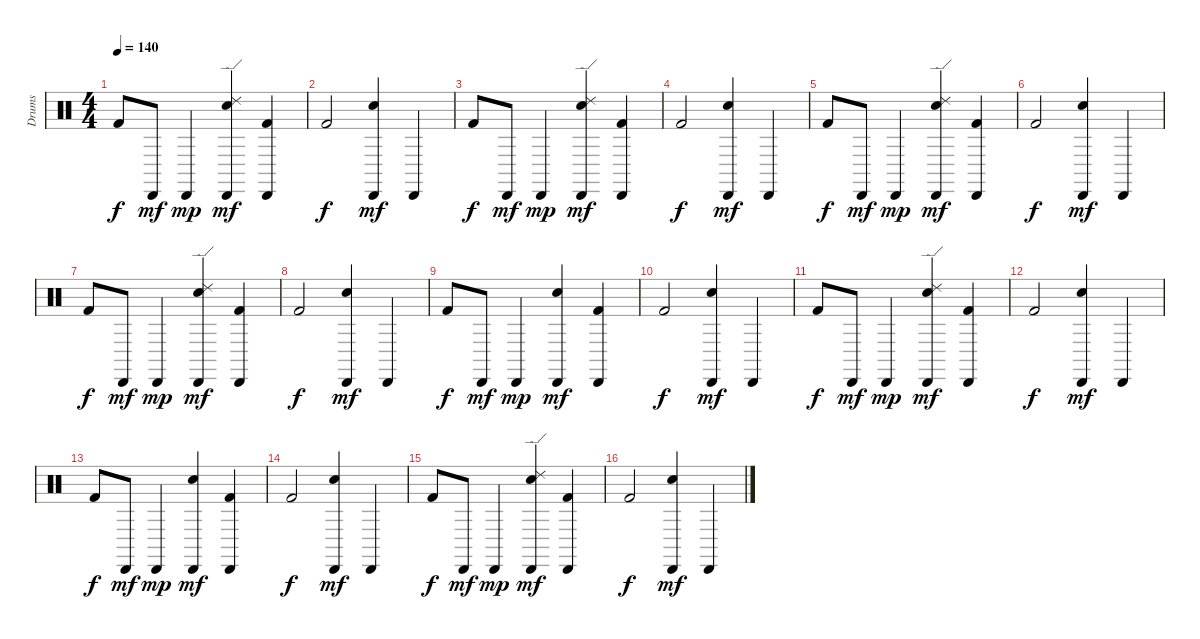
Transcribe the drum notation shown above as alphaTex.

\track ("Drums" "Drums") {instrument percussion}
\staff {score}
\articulation defaults
\ts (4 4)
\tempo 140
\clef neutral
\ks c "Kick (hit) 2".8{dy f} "Cabasa (hit)".8{dy mf} "Cabasa (hit)".4{dy mp}
("Snare (hit) 2" "Cabasa (hit)" "Ride (edge) 2").4{dy mf} ("Kick (hit) 2" "Cabasa (hit)").4 |
"Kick (hit) 2".2{dy f} ("Snare (hit) 2" "Cabasa (hit)").4{dy mf} "Cabasa (hit)".4 |
"Kick (hit) 2".8{dy f} "Cabasa (hit)".8{dy mf} "Cabasa (hit)".4{dy mp} ("Snare (hit) 2" "Cabasa (hit)" "Ride (edge) 2").4{dy mf} ("Kick (hit) 2" "Cabasa (hit)").4 |
"Kick (hit) 2".2{dy f} ("Snare (hit) 2" "Cabasa (hit)").4{dy mf} "Cabasa (hit)".4 |
"Kick (hit) 2".8{dy f} "Cabasa (hit)".8{dy mf} "Cabasa (hit)".4{dy mp} ("Snare (hit) 2" "Cabasa (hit)" "Ride (edge) 2").4{dy mf} ("Kick (hit) 2" "Cabasa (hit)").4 |
"Kick (hit) 2".2{dy f} ("Snare (hit) 2" "Cabasa (hit)").4{dy mf} "Cabasa (hit)".4 |
"Kick (hit) 2".8{dy f} "Cabasa (hit)".8{dy mf} "Cabasa (hit)".4{dy mp} ("Snare (hit) 2" "Cabasa (hit)" "Ride (edge) 2").4{dy mf} ("Kick (hit) 2" "Cabasa (hit)").4 |
"Kick (hit) 2".2{dy f} ("Snare (hit) 2" "Cabasa (hit)").4{dy mf} "Cabasa (hit)".4 |
"Kick (hit) 2".8{dy f} "Cabasa (hit)".8{dy mf} "Cabasa (hit)".4{dy mp} ("Snare (hit) 2" "Cabasa (hit)").4{dy mf} ("Kick (hit) 2" "Cabasa (hit)").4 |
"Kick (hit) 2".2{dy f} ("Snare (hit) 2" "Cabasa (hit)").4{dy mf} "Cabasa (hit)".4 |
"Kick (hit) 2".8{dy f} "Cabasa (hit)".8{dy mf} "Cabasa (hit)".4{dy mp} ("Snare (hit) 2" "Cabasa (hit)" "Ride (edge) 2").4{dy mf} ("Kick (hit) 2" "Cabasa (hit)").4 |
"Kick (hit) 2".2{dy f} ("Snare (hit) 2" "Cabasa (hit)").4{dy mf} "Cabasa (hit)".4 |
"Kick (hit) 2".8{dy f} "Cabasa (hit)".8{dy mf} "Cabasa (hit)".4{dy mp} ("Snare (hit) 2" "Cabasa (hit)").4{dy mf} ("Kick (hit) 2" "Cabasa (hit)").4 |
"Kick (hit) 2".2{dy f} ("Snare (hit) 2" "Cabasa (hit)").4{dy mf} "Cabasa (hit)".4 |
"Kick (hit) 2".8{dy f} "Cabasa (hit)".8{dy mf} "Cabasa (hit)".4{dy mp} ("Snare (hit) 2" "Cabasa (hit)" "Ride (edge) 2").4{dy mf} ("Kick (hit) 2" "Cabasa (hit)").4 |
"Kick (hit) 2".2{dy f} ("Snare (hit) 2" "Cabasa (hit)").4{dy mf} "Cabasa (hit)".4
